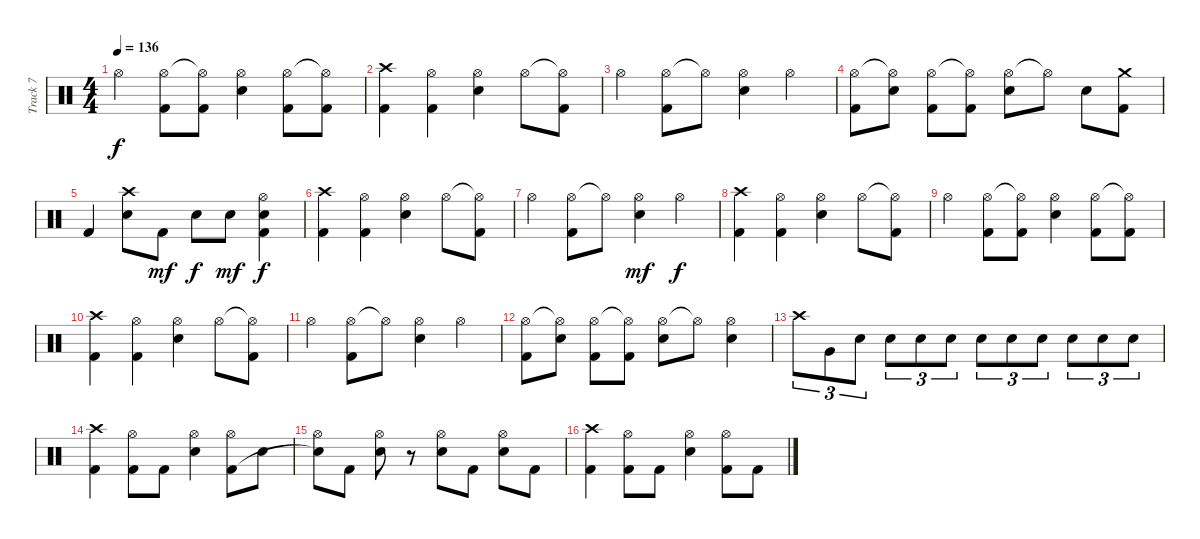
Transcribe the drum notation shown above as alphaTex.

\track ("Track 7" "Track 7") {instrument percussion}
\staff {score}
\articulation defaults
\ts (4 4)
\tempo 136
\clef neutral
\ks c "Hi-Hat (open)".4{dy f}
("Hi-Hat (open)" "Kick (hit) 2").8 ("Hi-Hat (open)"{t} "Kick (hit) 2").8 ("Hi-Hat (open)" "Electric Snare (hit)").4 ("Hi-Hat (open)" "Kick (hit) 2").8 ("Hi-Hat (open)"{t} "Kick (hit) 2").8 |
("Crash high (hit)" "Kick (hit) 2").4 ("Hi-Hat (open)" "Kick (hit) 2").4 ("Hi-Hat (open)" "Electric Snare (hit)").4 "Hi-Hat (open)".8 ("Hi-Hat (open)"{t} "Kick (hit) 2").8 |
"Hi-Hat (open)".4 ("Hi-Hat (open)" "Kick (hit) 2").8 "Hi-Hat (open)"{t}.8 ("Hi-Hat (open)" "Electric Snare (hit)").4 "Hi-Hat (open)".4 |
("Hi-Hat (open)" "Kick (hit) 2").8 ("Hi-Hat (open)"{t} "Electric Snare (hit)").8 ("Hi-Hat (open)" "Kick (hit) 2").8 ("Hi-Hat (open)"{t} "Kick (hit) 2").8 ("Hi-Hat (open)" "Electric Snare (hit)").8 "Hi-Hat (open)"{t}.8 "Electric Snare (hit)".8 ("Crash medium (hit)" "Kick (hit) 2").8 |
"Kick (hit) 2".4 ("Crash high (hit)" "Electric Snare (hit)").8 "Kick (hit) 2".8{dy mf} "Electric Snare (hit)".8{dy f} "Electric Snare (hit)".8{dy mf} ("Hi-Hat (open)" "Electric Snare (hit)" "Kick (hit) 2").4{dy f} |
("Crash high (hit)" "Kick (hit) 2").4 ("Hi-Hat (open)" "Kick (hit) 2").4 ("Hi-Hat (open)" "Electric Snare (hit)").4 "Hi-Hat (open)".8 ("Hi-Hat (open)"{t} "Kick (hit) 2").8 |
"Hi-Hat (open)".4 ("Hi-Hat (open)" "Kick (hit) 2").8 "Hi-Hat (open)"{t}.8 ("Hi-Hat (open)" "Electric Snare (hit)").4{dy mf} "Hi-Hat (open)".4{dy f} |
("Crash high (hit)" "Kick (hit) 2").4 ("Hi-Hat (open)" "Kick (hit) 2").4 ("Hi-Hat (open)" "Electric Snare (hit)").4 "Hi-Hat (open)".8 ("Hi-Hat (open)"{t} "Kick (hit) 2").8 |
"Hi-Hat (open)".4 ("Hi-Hat (open)" "Kick (hit) 2").8 ("Hi-Hat (open)"{t} "Kick (hit) 2").8 ("Hi-Hat (open)" "Electric Snare (hit)").4 ("Hi-Hat (open)" "Kick (hit) 2").8 ("Hi-Hat (open)"{t} "Kick (hit) 2").8 |
("Crash high (hit)" "Kick (hit) 2").4 ("Hi-Hat (open)" "Kick (hit) 2").4 ("Hi-Hat (open)" "Electric Snare (hit)").4 "Hi-Hat (open)".8 ("Hi-Hat (open)"{t} "Kick (hit) 2").8 |
"Hi-Hat (open)".4 ("Hi-Hat (open)" "Kick (hit) 2").8 "Hi-Hat (open)"{t}.8 ("Hi-Hat (open)" "Electric Snare (hit)").4 "Hi-Hat (open)".4 |
("Hi-Hat (open)" "Kick (hit) 2").8 ("Hi-Hat (open)"{t} "Electric Snare (hit)").8 ("Hi-Hat (open)" "Kick (hit) 2").8 ("Hi-Hat (open)"{t} "Kick (hit) 2").8 ("Hi-Hat (open)" "Electric Snare (hit)").8 "Hi-Hat (open)"{t}.8 ("Hi-Hat (open)" "Electric Snare (hit)").4 |
"Crash high (hit)".8{tu (3 2)} "Very Low Tom (hit)".8{tu (3 2)} "Electric Snare (hit)".8{tu (3 2)} "Electric Snare (hit)".8{tu (3 2)} "Electric Snare (hit)".8{tu (3 2)} "Electric Snare (hit)".8{tu (3 2)} "Electric Snare (hit)".8{tu (3 2)} "Electric Snare (hit)".8{tu (3 2)} "Electric Snare (hit)".8{tu (3 2)} "Electric Snare (hit)".8{tu (3 2)} "Electric Snare (hit)".8{tu (3 2)} "Electric Snare (hit)".8{tu (3 2)} |
("Crash high (hit)" "Kick (hit) 2").4 ("Hi-Hat (open)" "Kick (hit) 2").8 "Kick (hit) 2".8 ("Hi-Hat (open)" "Electric Snare (hit)").4 ("Hi-Hat (open)" "Kick (hit) 2").8 "Electric Snare (hit)".8 |
("Hi-Hat (open)" "Electric Snare (hit)"{t}).8 "Kick (hit) 2".8 ("Hi-Hat (open)" "Electric Snare (hit)").8 r.8 ("Hi-Hat (open)" "Electric Snare (hit)").8 "Kick (hit) 2".8 ("Hi-Hat (open)" "Electric Snare (hit)").8 "Kick (hit) 2".8 |
("Crash high (hit)" "Kick (hit) 2").4 ("Hi-Hat (open)" "Kick (hit) 2").8 "Kick (hit) 2".8 ("Hi-Hat (open)" "Electric Snare (hit)").4 ("Hi-Hat (open)" "Kick (hit) 2").8 "Kick (hit) 2".8
